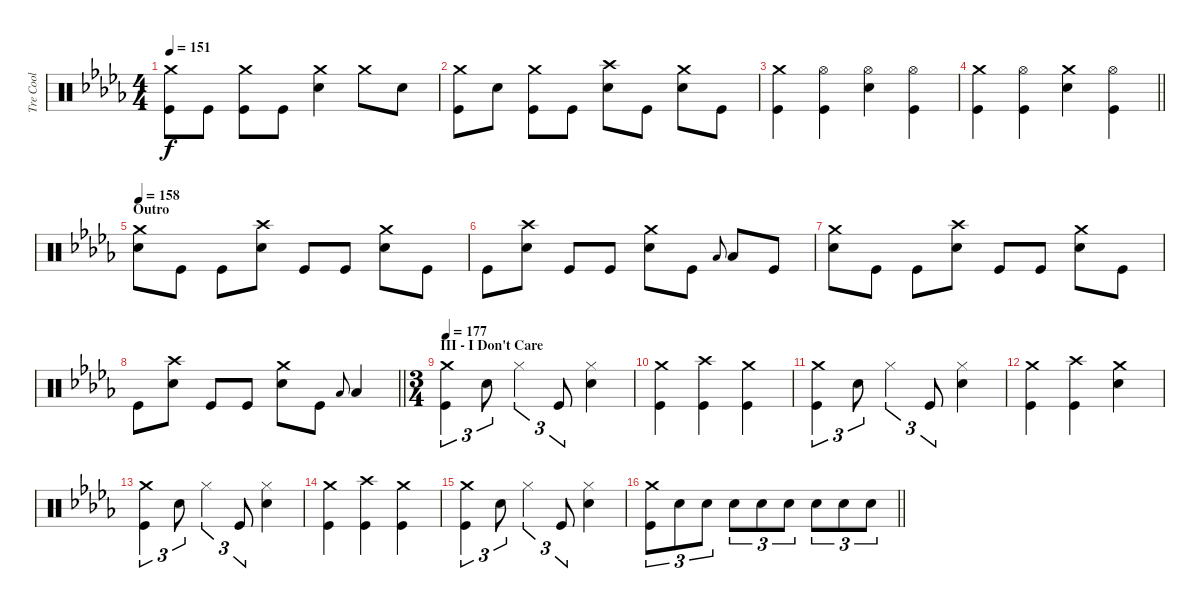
\track ("Tre Cool" "Tre Cool") {instrument percussion}
\staff {score}
\articulation defaults
\ts (4 4)
\tempo 151
\clef neutral
\ks db
("Crash medium (hit)" "Kick (hit)").8{dy f} "Kick (hit)".8 ("Crash medium (hit)" "Kick (hit)").8 "Kick (hit)".8 ("Crash medium (hit)" "Electric Snare (hit)").4 "Crash medium (hit)".8 "Electric Snare (hit)".8 |
("Crash medium (hit)" "Kick (hit)").8 "Electric Snare (hit)".8 ("Crash medium (hit)" "Kick (hit)").8 "Kick (hit)".8 ("Crash high (hit)" "Electric Snare (hit)").8 "Kick (hit)".8 ("Crash medium (hit)" "Electric Snare (hit)").8 "Kick (hit)".8 |
("Crash medium (hit)" "Kick (hit)").4 ("Hi-Hat (open)" "Kick (hit)").4 ("Hi-Hat (open)" "Electric Snare (hit)").4 ("Hi-Hat (open)" "Kick (hit)").4 |
\barLineRight lightlight
("Crash medium (hit)" "Kick (hit)").4 ("Hi-Hat (open)" "Kick (hit)").4 ("Crash medium (hit)" "Electric Snare (hit)").4 ("Hi-Hat (open)" "Kick (hit)").4 |
\section ("" "Outro")
\tempo 158
("Crash medium (hit)" "Electric Snare (hit)").8 "Kick (hit)".8 "Kick (hit)".8 ("Crash high (hit)" "Electric Snare (hit)").8 "Kick (hit)".8 "Kick (hit)".8 ("Crash medium (hit)" "Electric Snare (hit)").8 "Kick (hit)".8 |
"Kick (hit)".8 ("Crash high (hit)" "Electric Snare (hit)").8 "Kick (hit)".8 "Kick (hit)".8 ("Crash medium (hit)" "Electric Snare (hit)").8 "Kick (hit)".8 "Low Tom (hit)".8{gr onbeat} "Low Tom (hit)".8 "Kick (hit)".8 |
("Crash medium (hit)" "Electric Snare (hit)").8 "Kick (hit)".8 "Kick (hit)".8 ("Crash high (hit)" "Electric Snare (hit)").8 "Kick (hit)".8 "Kick (hit)".8 ("Crash medium (hit)" "Electric Snare (hit)").8 "Kick (hit)".8 |
\barLineRight lightlight "Kick (hit)".8
("Crash high (hit)" "Electric Snare (hit)").8 "Kick (hit)".8 "Kick (hit)".8 ("Crash medium (hit)" "Electric Snare (hit)").8 "Kick (hit)".8 "Low Tom (hit)".8{gr onbeat} "Low Tom (hit)".4 |
\ts (3 4)
\section ("" "III - I Don't Care")
\tempo 177
("Crash medium (hit)" "Kick (hit)").4{tu (3 2)} "Electric Snare (hit)".8{tu (3 2)} "Hi-Hat (closed)".4{tu (3 2)} "Kick (hit)".8{tu (3 2)} ("Hi-Hat (closed)" "Electric Snare (hit)").4 |
("Crash medium (hit)" "Kick (hit)").4 ("Crash high (hit)" "Kick (hit)").4 ("Crash medium (hit)" "Kick (hit)").4 |
("Crash medium (hit)" "Kick (hit)").4{tu (3 2)} "Electric Snare (hit)".8{tu (3 2)} "Hi-Hat (closed)".4{tu (3 2)} "Kick (hit)".8{tu (3 2)} ("Hi-Hat (closed)" "Electric Snare (hit)").4 |
("Crash medium (hit)" "Kick (hit)").4 ("Crash high (hit)" "Kick (hit)").4 ("Crash medium (hit)" "Electric Snare (hit)").4 |
("Crash medium (hit)" "Kick (hit)").4{tu (3 2)} "Electric Snare (hit)".8{tu (3 2)} "Hi-Hat (closed)".4{tu (3 2)} "Kick (hit)".8{tu (3 2)} ("Hi-Hat (closed)" "Electric Snare (hit)").4 |
("Crash medium (hit)" "Kick (hit)").4 ("Crash high (hit)" "Kick (hit)").4 ("Crash medium (hit)" "Kick (hit)").4 |
("Crash medium (hit)" "Kick (hit)").4{tu (3 2)} "Electric Snare (hit)".8{tu (3 2)} "Hi-Hat (closed)".4{tu (3 2)} "Kick (hit)".8{tu (3 2)} ("Hi-Hat (closed)" "Electric Snare (hit)").4 |
\barLineRight lightlight
("Crash medium (hit)" "Kick (hit)").8{tu (3 2)} "Electric Snare (hit)".8{tu (3 2)} "Electric Snare (hit)".8{tu (3 2)} "Electric Snare (hit)".8{tu (3 2)} "Electric Snare (hit)".8{tu (3 2)} "Electric Snare (hit)".8{tu (3 2)} "Electric Snare (hit)".8{tu (3 2)} "Electric Snare (hit)".8{tu (3 2)} "Electric Snare (hit)".8{tu (3 2)}
